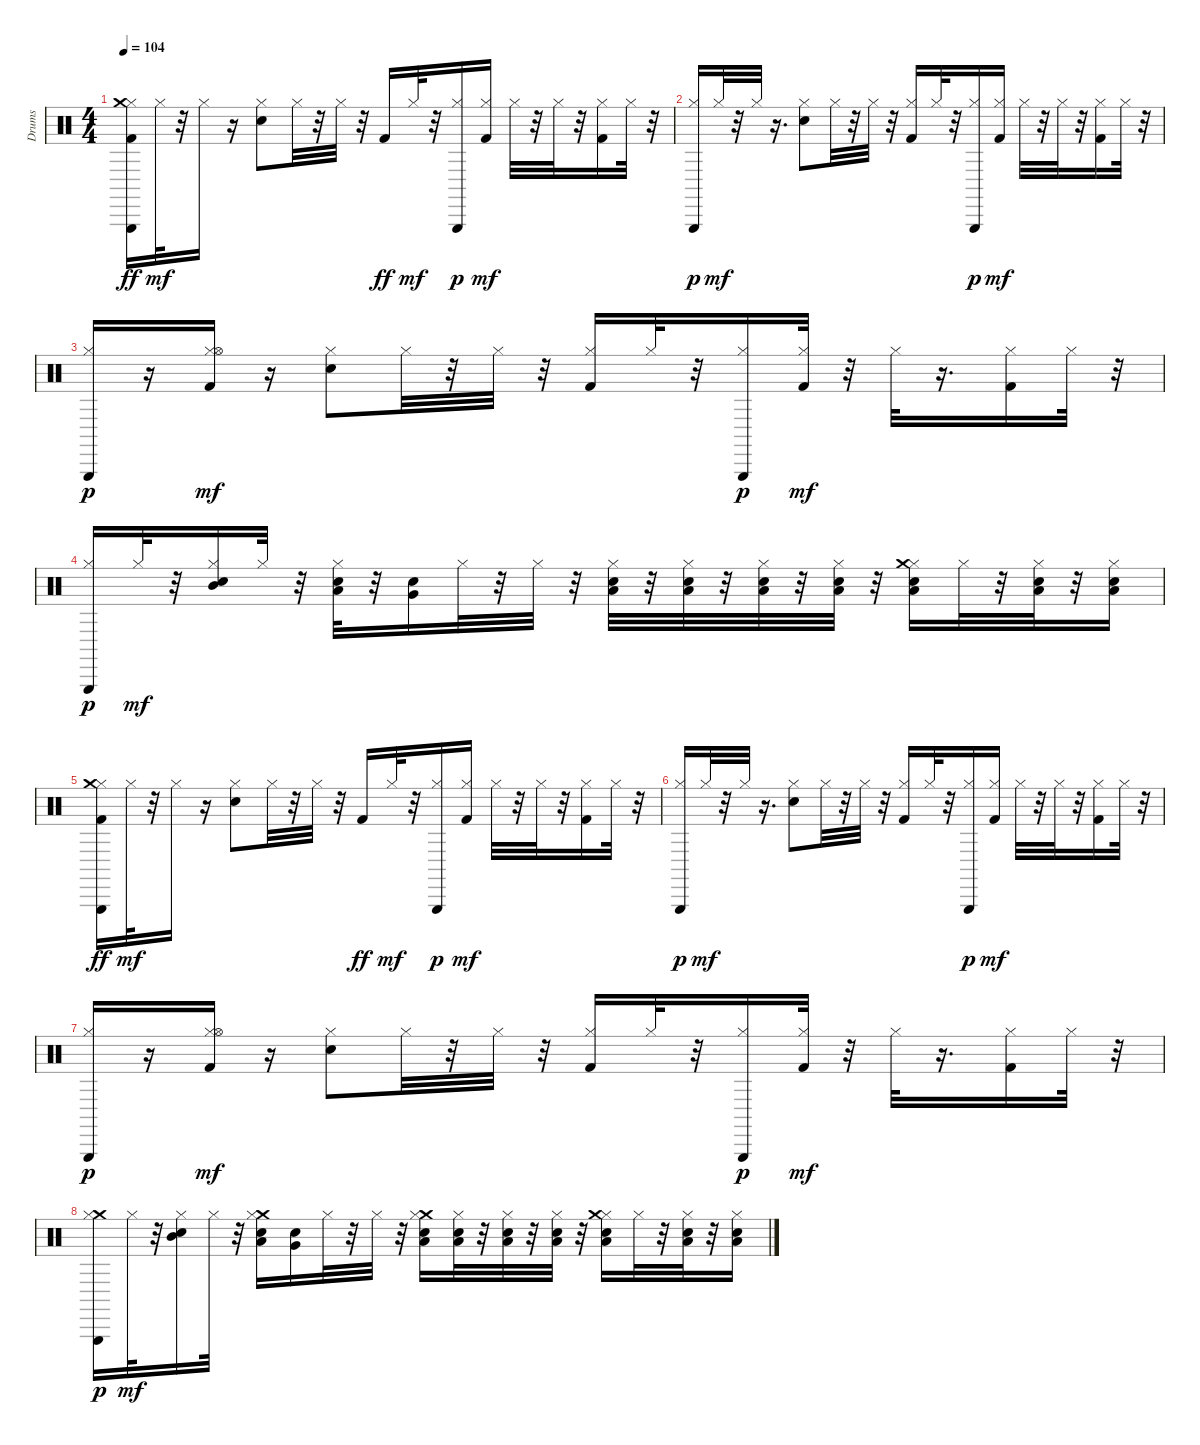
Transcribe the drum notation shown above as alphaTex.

\track ("Drums" "Drums") {instrument percussion}
\staff {score}
\articulation defaults
\ts (4 4)
\tempo 104
\clef neutral
\ks c
("Kick (hit) 2" "Hi-Hat (closed)" "Triangle (hit)" "Crash medium (hit)").16{dy ff} "Hi-Hat (closed)".32{dy mf} r.32 "Hi-Hat (closed)".16 r.16 ("Hi-Hat (closed)" "Snare (hit) 2").8 "Hi-Hat (closed)".32 r.32 "Hi-Hat (closed)".32 r.32 "Kick (hit) 2".16{dy ff} "Hi-Hat (closed)".32{dy mf} r.32 ("Hi-Hat (closed)" "Triangle (hit)").16{dy p} ("Kick (hit) 2" "Hi-Hat (closed)").16{dy mf} "Hi-Hat (closed)".32 r.32 "Hi-Hat (closed)".32 r.32 ("Kick (hit) 2" "Hi-Hat (closed)").16 "Hi-Hat (closed)".32 r.32 |
("Hi-Hat (closed)" "Triangle (hit)").16{dy p} "Hi-Hat (closed)".32{dy mf} r.32 "Hi-Hat (closed)".32 r.16{d} ("Hi-Hat (closed)" "Snare (hit) 2").8 "Hi-Hat (closed)".32 r.32 "Hi-Hat (closed)".32 r.32 ("Kick (hit) 2" "Hi-Hat (closed)").16 "Hi-Hat (closed)".32 r.32 ("Hi-Hat (closed)" "Triangle (hit)").16{dy p} ("Kick (hit) 2" "Hi-Hat (closed)").16{dy mf} "Hi-Hat (closed)".32 r.32 "Hi-Hat (closed)".32 r.32 ("Kick (hit) 2" "Hi-Hat (closed)").16 "Hi-Hat (closed)".32 r.32 |
("Hi-Hat (closed)" "Triangle (hit)").16{dy p} r.16 ("Kick (hit) 2" "Hi-Hat (closed)" "Hi-Hat (open)").16{dy mf} r.16 ("Hi-Hat (closed)" "Snare (hit) 2").8 "Hi-Hat (closed)".32 r.32 "Hi-Hat (closed)".32 r.32 ("Kick (hit) 2" "Hi-Hat (closed)").16 "Hi-Hat (closed)".32 r.32 ("Hi-Hat (closed)" "Triangle (hit)").16{dy p} ("Kick (hit) 2" "Hi-Hat (closed)").32{dy mf} r.32 "Hi-Hat (closed)".32 r.16{d} ("Kick (hit) 2" "Hi-Hat (closed)").16 "Hi-Hat (closed)".32 r.32 |
("Hi-Hat (closed)" "Triangle (hit)").16{dy p} "Hi-Hat (closed)".32{dy mf} r.32 ("Hi-Hat (closed)" "Snare (hit) 2" "Mid Tom (hit)").16 "Hi-Hat (closed)".32 r.32 ("Hi-Hat (closed)" "Snare (hit) 2" "Low Tom (hit)").32 r.32 ("Snare (hit) 2" "Very Low Tom (hit)").16 "Hi-Hat (closed)".32 r.32 "Hi-Hat (closed)".32 r.32 ("Hi-Hat (closed)" "Snare (hit) 2" "Low Floor Tom (hit)").32 r.32 ("Hi-Hat (closed)" "Snare (hit) 2" "Low Floor Tom (hit)").32 r.32 ("Hi-Hat (closed)" "Snare (hit) 2" "Low Floor Tom (hit)").32 r.32 ("Hi-Hat (closed)" "Snare (hit) 2" "Low Floor Tom (hit)").32 r.32 ("Hi-Hat (closed)" "Snare (hit) 2" "Low Floor Tom (hit)" "Crash medium (hit)").16 "Hi-Hat (closed)".32 r.32 ("Hi-Hat (closed)" "Snare (hit) 2" "Low Floor Tom (hit)").32 r.32 ("Hi-Hat (closed)" "Snare (hit) 2" "Low Floor Tom (hit)").16 |
("Kick (hit) 2" "Hi-Hat (closed)" "Triangle (hit)" "Crash medium (hit)").16{dy ff} "Hi-Hat (closed)".32{dy mf} r.32 "Hi-Hat (closed)".16 r.16 ("Hi-Hat (closed)" "Snare (hit) 2").8 "Hi-Hat (closed)".32 r.32 "Hi-Hat (closed)".32 r.32 "Kick (hit) 2".16{dy ff} "Hi-Hat (closed)".32{dy mf} r.32 ("Hi-Hat (closed)" "Triangle (hit)").16{dy p} ("Kick (hit) 2" "Hi-Hat (closed)").16{dy mf} "Hi-Hat (closed)".32 r.32 "Hi-Hat (closed)".32 r.32 ("Kick (hit) 2" "Hi-Hat (closed)").16 "Hi-Hat (closed)".32 r.32 |
("Hi-Hat (closed)" "Triangle (hit)").16{dy p} "Hi-Hat (closed)".32{dy mf} r.32 "Hi-Hat (closed)".32 r.16{d} ("Hi-Hat (closed)" "Snare (hit) 2").8 "Hi-Hat (closed)".32 r.32 "Hi-Hat (closed)".32 r.32 ("Kick (hit) 2" "Hi-Hat (closed)").16 "Hi-Hat (closed)".32 r.32 ("Hi-Hat (closed)" "Triangle (hit)").16{dy p} ("Kick (hit) 2" "Hi-Hat (closed)").16{dy mf} "Hi-Hat (closed)".32 r.32 "Hi-Hat (closed)".32 r.32 ("Kick (hit) 2" "Hi-Hat (closed)").16 "Hi-Hat (closed)".32 r.32 |
("Hi-Hat (closed)" "Triangle (hit)").16{dy p} r.16 ("Kick (hit) 2" "Hi-Hat (closed)" "Hi-Hat (open)").16{dy mf} r.16 ("Hi-Hat (closed)" "Snare (hit) 2").8 "Hi-Hat (closed)".32 r.32 "Hi-Hat (closed)".32 r.32 ("Kick (hit) 2" "Hi-Hat (closed)").16 "Hi-Hat (closed)".32 r.32 ("Hi-Hat (closed)" "Triangle (hit)").16{dy p} ("Kick (hit) 2" "Hi-Hat (closed)").32{dy mf} r.32 "Hi-Hat (closed)".32 r.16{d} ("Kick (hit) 2" "Hi-Hat (closed)").16 "Hi-Hat (closed)".32 r.32 |
("Crash medium (hit)" "Hi-Hat (closed)" "Triangle (hit)").16{dy p} "Hi-Hat (closed)".32{dy mf} r.32 ("Hi-Hat (closed)" "Snare (hit) 2" "Mid Tom (hit)").16 "Hi-Hat (closed)".32 r.32 ("Crash medium (hit)" "Hi-Hat (closed)" "Snare (hit) 2" "Low Tom (hit)").16 ("Snare (hit) 2" "Very Low Tom (hit)").16 "Hi-Hat (closed)".32 r.32 "Hi-Hat (closed)".32 r.32 ("Crash medium (hit)" "Hi-Hat (closed)" "Snare (hit) 2" "Low Floor Tom (hit)").16 ("Hi-Hat (closed)" "Snare (hit) 2" "Low Floor Tom (hit)").32 r.32 ("Hi-Hat (closed)" "Snare (hit) 2" "Low Floor Tom (hit)").32 r.32 ("Hi-Hat (closed)" "Snare (hit) 2" "Low Floor Tom (hit)").32 r.32 ("Hi-Hat (closed)" "Snare (hit) 2" "Low Floor Tom (hit)" "Crash medium (hit)").16 "Hi-Hat (closed)".32 r.32 ("Hi-Hat (closed)" "Snare (hit) 2" "Low Floor Tom (hit)").32 r.32 ("Hi-Hat (closed)" "Snare (hit) 2" "Low Floor Tom (hit)").16
